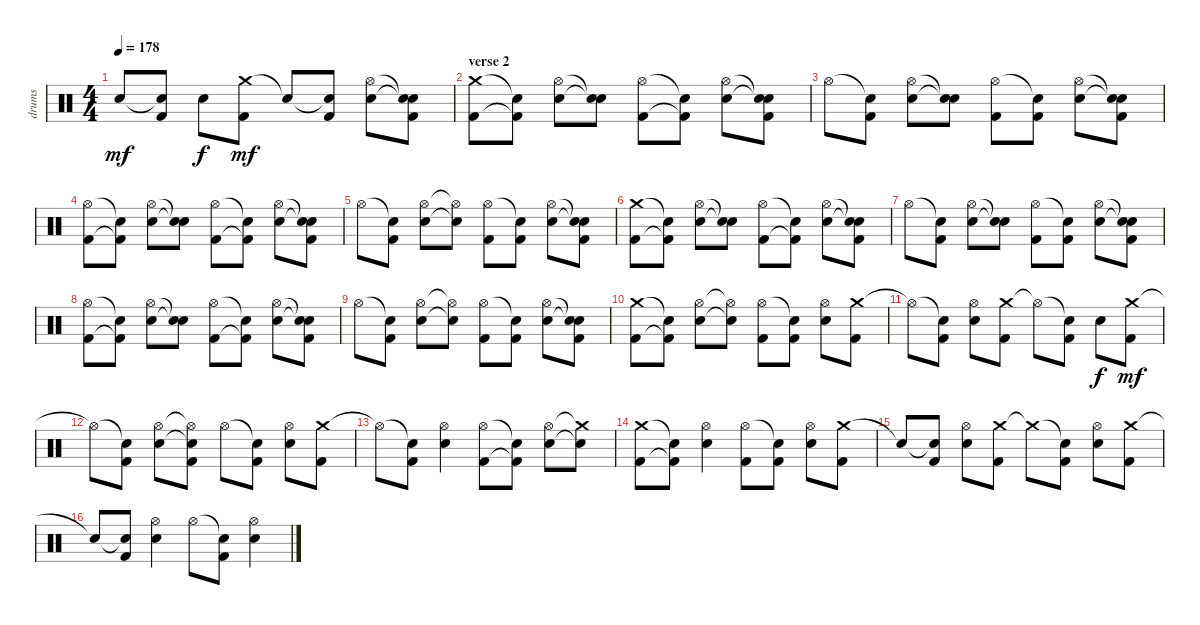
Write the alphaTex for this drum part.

\track ("drums" "drums") {instrument percussion}
\staff {score}
\articulation defaults
\ts (4 4)
\tempo 178
\clef neutral
\ks aminor "Snare (hit)"{t}.8{dy mf}
("Snare (hit)"{t} "Kick (hit) 2").8 "Snare (hit) 2".8{dy f} ("Crash medium (hit)" "Kick (hit) 2").8{dy mf} "Snare (hit)"{t}.8 ("Snare (hit)"{t} "Kick (hit) 2").8 ("Hi-Hat (open)" "Snare (hit) 2").8 ("Snare (hit)"{t} "Snare (hit)"{t} "Kick (hit) 2").8 |
\section ("" "verse 2")
("Crash medium (hit)" "Kick (hit) 2").8 ("Snare (hit)"{t} "Kick (hit) 2"{t}).8 ("Hi-Hat (open)" "Snare (hit) 2").8 ("Snare (hit)"{t} "Snare (hit)"{t}).8 ("Hi-Hat (open)" "Kick (hit) 2").8 ("Snare (hit)"{t} "Kick (hit) 2"{t}).8 ("Hi-Hat (open)" "Snare (hit) 2").8 ("Snare (hit)"{t} "Snare (hit)"{t} "Kick (hit) 2").8 |
"Hi-Hat (open)".8 ("Snare (hit)"{t} "Kick (hit) 2").8 ("Hi-Hat (open)" "Snare (hit) 2").8 ("Snare (hit)"{t} "Snare (hit)"{t}).8 ("Hi-Hat (open)" "Kick (hit) 2").8 ("Snare (hit)"{t} "Kick (hit) 2").8 ("Hi-Hat (open)" "Snare (hit) 2").8 ("Snare (hit)"{t} "Snare (hit)"{t} "Kick (hit) 2").8 |
("Hi-Hat (open)" "Kick (hit) 2").8 ("Snare (hit)"{t} "Kick (hit) 2"{t}).8 ("Hi-Hat (open)" "Snare (hit) 2").8 ("Snare (hit)"{t} "Snare (hit)"{t}).8 ("Hi-Hat (open)" "Kick (hit) 2").8 ("Snare (hit)"{t} "Kick (hit) 2"{t}).8 ("Hi-Hat (open)" "Snare (hit) 2").8 ("Snare (hit)"{t} "Snare (hit)"{t} "Kick (hit) 2").8 |
"Hi-Hat (open)".8 ("Snare (hit)"{t} "Kick (hit) 2").8 ("Hi-Hat (open)" "Snare (hit) 2").8 ("Hi-Hat (open)"{t} "Snare (hit)"{t}).8 ("Hi-Hat (open)" "Kick (hit) 2").8 ("Snare (hit)"{t} "Kick (hit) 2").8 ("Hi-Hat (open)" "Snare (hit) 2").8 ("Snare (hit)"{t} "Snare (hit)"{t} "Kick (hit) 2").8 |
("Crash medium (hit)" "Kick (hit) 2").8 ("Snare (hit)"{t} "Kick (hit) 2"{t}).8 ("Hi-Hat (open)" "Snare (hit) 2").8 ("Snare (hit)"{t} "Snare (hit)"{t}).8 ("Hi-Hat (open)" "Kick (hit) 2").8 ("Snare (hit)"{t} "Kick (hit) 2"{t}).8 ("Hi-Hat (open)" "Snare (hit) 2").8 ("Snare (hit)"{t} "Snare (hit)"{t} "Kick (hit) 2").8 |
"Hi-Hat (open)".8 ("Snare (hit)"{t} "Kick (hit) 2").8 ("Hi-Hat (open)" "Snare (hit) 2").8 ("Snare (hit)"{t} "Snare (hit)"{t}).8 ("Hi-Hat (open)" "Kick (hit) 2").8 ("Snare (hit)"{t} "Kick (hit) 2").8 ("Hi-Hat (open)" "Snare (hit) 2").8 ("Snare (hit)"{t} "Snare (hit)"{t} "Kick (hit) 2").8 |
("Hi-Hat (open)" "Kick (hit) 2").8 ("Snare (hit)"{t} "Kick (hit) 2"{t}).8 ("Hi-Hat (open)" "Snare (hit) 2").8 ("Snare (hit)"{t} "Snare (hit)"{t}).8 ("Hi-Hat (open)" "Kick (hit) 2").8 ("Snare (hit)"{t} "Kick (hit) 2"{t}).8 ("Hi-Hat (open)" "Snare (hit) 2").8 ("Snare (hit)"{t} "Snare (hit)"{t} "Kick (hit) 2").8 |
"Hi-Hat (open)".8 ("Snare (hit)"{t} "Kick (hit) 2").8 ("Hi-Hat (open)" "Snare (hit) 2").8 ("Hi-Hat (open)"{t} "Snare (hit)"{t}).8 ("Hi-Hat (open)" "Kick (hit) 2").8 ("Snare (hit)"{t} "Kick (hit) 2").8 ("Hi-Hat (open)" "Snare (hit) 2").8 ("Snare (hit)"{t} "Snare (hit)"{t} "Kick (hit) 2").8 |
("Crash medium (hit)" "Kick (hit) 2").8 ("Snare (hit)"{t} "Kick (hit) 2"{t}).8 ("Hi-Hat (open)" "Snare (hit) 2").8 ("Hi-Hat (open)"{t} "Snare (hit)"{t}).8 ("Hi-Hat (open)" "Kick (hit) 2").8 ("Snare (hit)"{t} "Kick (hit) 2").8 ("Hi-Hat (open)" "Snare (hit) 2").8 ("Crash medium (hit)" "Kick (hit) 2").8 |
"Hi-Hat (open)"{t}.8 ("Snare (hit)"{t} "Kick (hit) 2").8 ("Hi-Hat (open)" "Snare (hit) 2").8 ("Crash medium (hit)" "Kick (hit) 2").8 "Hi-Hat (open)"{t}.8 ("Snare (hit)"{t} "Kick (hit) 2").8 "Snare (hit) 2".8{dy f} ("Crash medium (hit)" "Kick (hit) 2").8{dy mf} |
"Hi-Hat (open)"{t}.8 ("Snare (hit)"{t} "Kick (hit) 2").8 ("Hi-Hat (open)" "Snare (hit) 2").8 ("Hi-Hat (open)"{t} "Snare (hit)"{t} "Kick (hit) 2").8 "Hi-Hat (open)".8 ("Snare (hit)"{t} "Kick (hit) 2").8 ("Hi-Hat (open)" "Snare (hit) 2").8 ("Crash medium (hit)" "Kick (hit) 2").8 |
"Hi-Hat (open)"{t}.8 ("Snare (hit)"{t} "Kick (hit) 2").8 ("Hi-Hat (open)" "Snare (hit) 2").4 ("Hi-Hat (open)" "Kick (hit) 2").8 ("Snare (hit)"{t} "Kick (hit) 2"{t}).8 ("Hi-Hat (open)" "Snare (hit) 2").8 ("Crash medium (hit)"{t} "Snare (hit)"{t}).8 |
("Crash medium (hit)" "Kick (hit) 2").8 ("Snare (hit)"{t} "Kick (hit) 2"{t}).8 ("Hi-Hat (open)" "Snare (hit) 2").4 ("Hi-Hat (open)" "Kick (hit) 2").8 ("Snare (hit)"{t} "Kick (hit) 2").8 ("Hi-Hat (open)" "Snare (hit) 2").8 ("Crash medium (hit)" "Kick (hit) 2").8 |
"Snare (hit)"{t}.8 ("Snare (hit)"{t} "Kick (hit) 2").8 ("Hi-Hat (open)" "Snare (hit) 2").8 ("Crash medium (hit)" "Kick (hit) 2").8 "Crash medium (hit)"{t}.8 ("Snare (hit)"{t} "Kick (hit) 2").8 ("Hi-Hat (open)" "Snare (hit) 2").8 ("Crash medium (hit)" "Kick (hit) 2").8 |
"Snare (hit)"{t}.8 ("Snare (hit)"{t} "Kick (hit) 2").8 ("Hi-Hat (open)" "Snare (hit) 2").4 "Hi-Hat (open)".8 ("Snare (hit)"{t} "Kick (hit) 2").8 ("Hi-Hat (open)" "Snare (hit) 2").4
